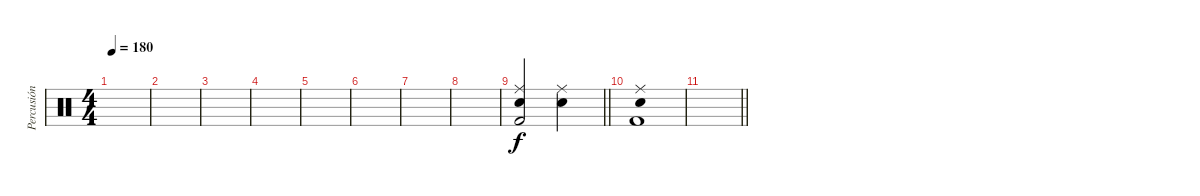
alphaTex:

\track ("Percusión" "Percusión") {instrument percussion}
\staff {score}
\articulation defaults
\ts (4 4)
\tempo 180
\clef neutral
\ks c
|
|
|
|
|
|
|
|
\barLineRight lightlight
("Metronome (bell)" "Ride (middle)" "Kick (hit) 2").2 ("Metronome (bell)" "Ride (middle)").2 |
("Metronome (bell)" "Ride (middle)" "Kick (hit) 2").1 |
\barLineRight lightlight
